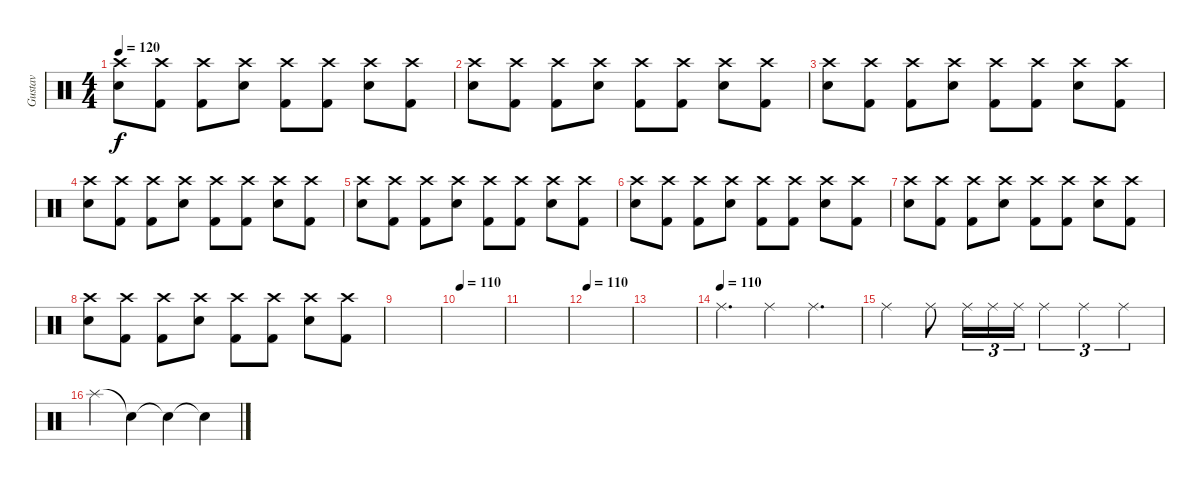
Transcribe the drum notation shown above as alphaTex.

\track ("Gustav" "Gustav") {instrument percussion}
\staff {score}
\articulation defaults
\ts (4 4)
\tempo 120
\clef neutral
\ks c
("Snare (hit) 2" "Crash high (hit)").8{dy f} ("Kick (hit) 2" "Crash high (hit)").8 ("Crash high (hit)" "Kick (hit) 2").8 ("Snare (hit) 2" "Crash high (hit)").8 ("Kick (hit) 2" "Crash high (hit)").8 ("Kick (hit) 2" "Crash high (hit)").8 ("Snare (hit) 2" "Crash high (hit)").8 ("Crash high (hit)" "Kick (hit) 2").8 |
("Snare (hit) 2" "Crash high (hit)").8 ("Kick (hit) 2" "Crash high (hit)").8 ("Crash high (hit)" "Kick (hit) 2").8 ("Snare (hit) 2" "Crash high (hit)").8 ("Kick (hit) 2" "Crash high (hit)").8 ("Kick (hit) 2" "Crash high (hit)").8 ("Snare (hit) 2" "Crash high (hit)").8 ("Crash high (hit)" "Kick (hit) 2").8 |
("Snare (hit) 2" "Crash high (hit)").8 ("Kick (hit) 2" "Crash high (hit)").8 ("Crash high (hit)" "Kick (hit) 2").8 ("Snare (hit) 2" "Crash high (hit)").8 ("Kick (hit) 2" "Crash high (hit)").8 ("Kick (hit) 2" "Crash high (hit)").8 ("Snare (hit) 2" "Crash high (hit)").8 ("Crash high (hit)" "Kick (hit) 2").8 |
("Snare (hit) 2" "Crash high (hit)").8 ("Kick (hit) 2" "Crash high (hit)").8 ("Crash high (hit)" "Kick (hit) 2").8 ("Snare (hit) 2" "Crash high (hit)").8 ("Kick (hit) 2" "Crash high (hit)").8 ("Kick (hit) 2" "Crash high (hit)").8 ("Snare (hit) 2" "Crash high (hit)").8 ("Crash high (hit)" "Kick (hit) 2").8 |
("Snare (hit) 2" "Crash high (hit)").8 ("Kick (hit) 2" "Crash high (hit)").8 ("Crash high (hit)" "Kick (hit) 2").8 ("Snare (hit) 2" "Crash high (hit)").8 ("Kick (hit) 2" "Crash high (hit)").8 ("Kick (hit) 2" "Crash high (hit)").8 ("Snare (hit) 2" "Crash high (hit)").8 ("Crash high (hit)" "Kick (hit) 2").8 |
("Snare (hit) 2" "Crash high (hit)").8 ("Kick (hit) 2" "Crash high (hit)").8 ("Crash high (hit)" "Kick (hit) 2").8 ("Snare (hit) 2" "Crash high (hit)").8 ("Kick (hit) 2" "Crash high (hit)").8 ("Kick (hit) 2" "Crash high (hit)").8 ("Snare (hit) 2" "Crash high (hit)").8 ("Crash high (hit)" "Kick (hit) 2").8 |
("Snare (hit) 2" "Crash high (hit)").8 ("Kick (hit) 2" "Crash high (hit)").8 ("Crash high (hit)" "Kick (hit) 2").8 ("Snare (hit) 2" "Crash high (hit)").8 ("Kick (hit) 2" "Crash high (hit)").8 ("Kick (hit) 2" "Crash high (hit)").8 ("Snare (hit) 2" "Crash high (hit)").8 ("Crash high (hit)" "Kick (hit) 2").8 |
("Snare (hit) 2" "Crash high (hit)").8 ("Kick (hit) 2" "Crash high (hit)").8 ("Crash high (hit)" "Kick (hit) 2").8 ("Snare (hit) 2" "Crash high (hit)").8 ("Kick (hit) 2" "Crash high (hit)").8 ("Kick (hit) 2" "Crash high (hit)").8 ("Snare (hit) 2" "Crash high (hit)").8 ("Crash high (hit)" "Kick (hit) 2").8 |
|
\tempo 110
|
|
\tempo 110
|
|
\tempo (110)
"Ride (middle)".4{d volume 16} "Ride (middle)".4 "Ride (middle)".4{d} |
"Ride (middle)".4 "Ride (middle)".8 "Ride (middle)".16{tu (3 2)} "Ride (middle)".16{tu (3 2)} "Ride (middle)".16{tu (3 2)} "Ride (middle)".4{tu (3 2)} "Ride (middle)".4{tu (3 2)} "Ride (middle)".4{tu (3 2)} |
"Splash (hit)".4 "Snare (hit)"{t}.4 "Snare (hit)"{t}.4 "Snare (hit)"{t}.4
